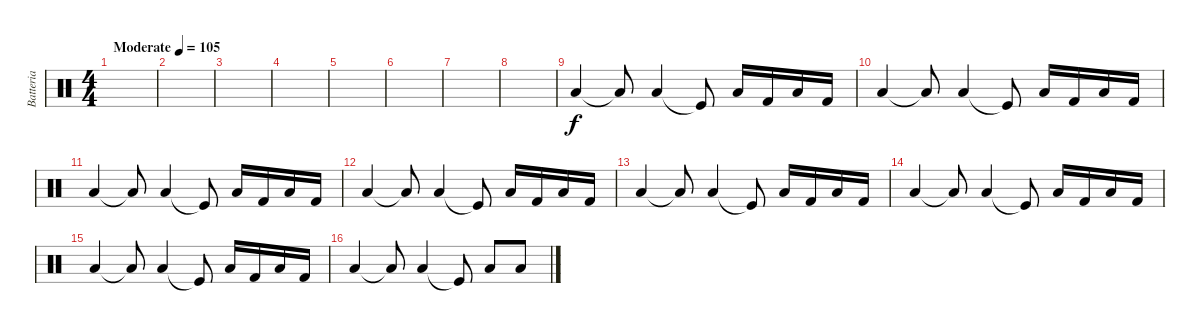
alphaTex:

\track ("Batteria" "Batteria") {instrument percussion}
\staff {score}
\articulation defaults
\ts (4 4)
\tempo (105 "Moderate")
\clef neutral
\ks c
|
|
|
|
|
|
|
|
"Low Tom (hit)".4 "Low Tom (hit)"{t}.8 "Low Tom (hit)".4 "Kick (hit)"{t}.8 "Low Tom (hit)".16 "Kick (hit) 2".16 "Low Tom (hit)".16 "Kick (hit) 2".16 |
"Low Tom (hit)".4 "Low Tom (hit)"{t}.8 "Low Tom (hit)".4 "Kick (hit)"{t}.8 "Low Tom (hit)".16 "Kick (hit) 2".16 "Low Tom (hit)".16 "Kick (hit) 2".16 |
"Low Tom (hit)".4 "Low Tom (hit)"{t}.8 "Low Tom (hit)".4 "Kick (hit)"{t}.8 "Low Tom (hit)".16 "Kick (hit) 2".16 "Low Tom (hit)".16 "Kick (hit) 2".16 |
"Low Tom (hit)".4 "Low Tom (hit)"{t}.8 "Low Tom (hit)".4 "Kick (hit)"{t}.8 "Low Tom (hit)".16 "Kick (hit) 2".16 "Low Tom (hit)".16 "Kick (hit) 2".16 |
"Low Tom (hit)".4 "Low Tom (hit)"{t}.8 "Low Tom (hit)".4 "Kick (hit)"{t}.8 "Low Tom (hit)".16 "Kick (hit) 2".16 "Low Tom (hit)".16 "Kick (hit) 2".16 |
"Low Tom (hit)".4 "Low Tom (hit)"{t}.8 "Low Tom (hit)".4 "Kick (hit)"{t}.8 "Low Tom (hit)".16 "Kick (hit) 2".16 "Low Tom (hit)".16 "Kick (hit) 2".16 |
"Low Tom (hit)".4 "Low Tom (hit)"{t}.8 "Low Tom (hit)".4 "Kick (hit)"{t}.8 "Low Tom (hit)".16 "Kick (hit) 2".16 "Low Tom (hit)".16 "Kick (hit) 2".16 |
"Low Tom (hit)".4 "Low Tom (hit)"{t}.8 "Low Tom (hit)".4 "Kick (hit)"{t}.8 "Low Tom (hit)".8 "Low Tom (hit)".8
